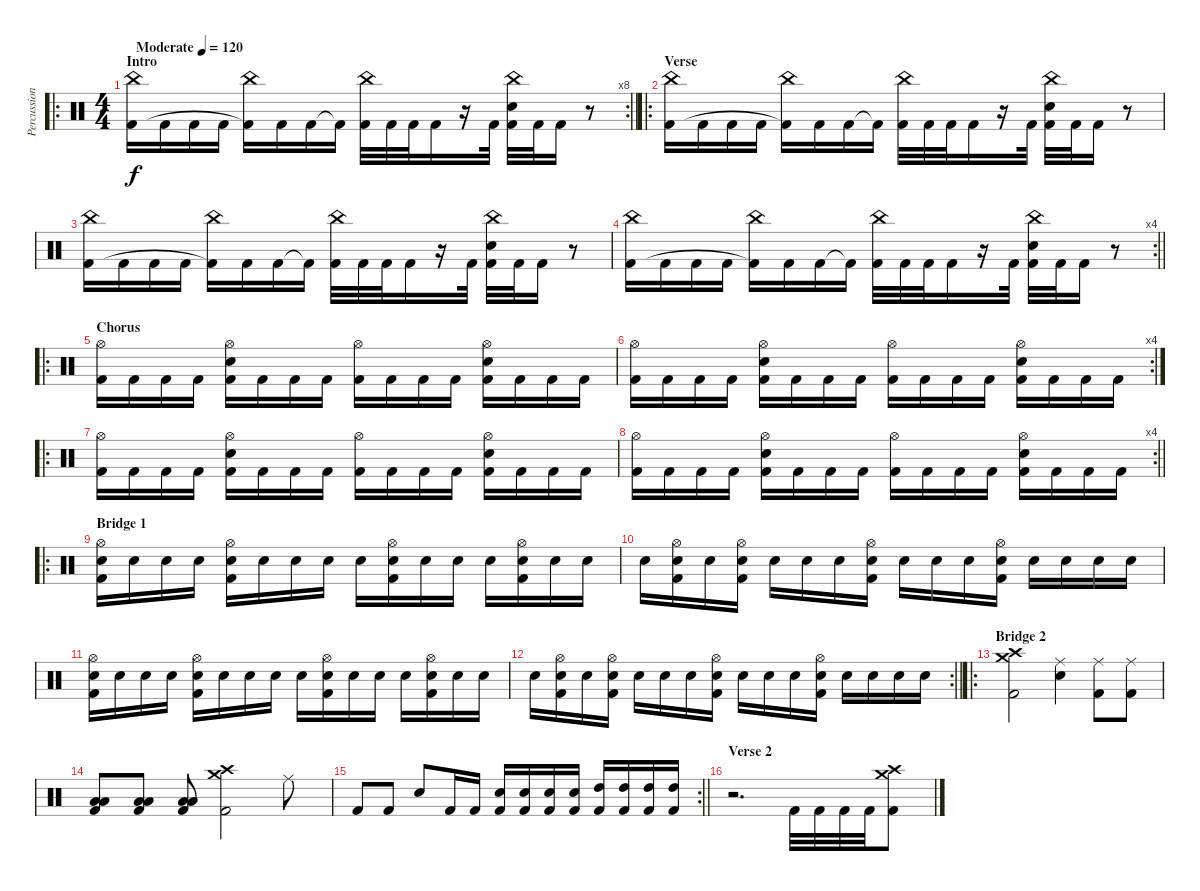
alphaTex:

\track ("Percussion" "Percussion") {instrument percussion}
\staff {score}
\articulation defaults
\ro
\rc 8
\ts (4 4)
\section ("" "Intro")
\tempo (120 "Moderate")
\clef neutral
\barLineRight lightlight
\ks c
("China (hit)" "Kick (hit) 2").16{dy f} "Kick (hit) 2".16 "Kick (hit) 2".16 "Kick (hit) 2".16 ("China (hit)" "Kick (hit) 2"{t}).16 "Kick (hit) 2".16 "Kick (hit) 2".16 "Kick (hit) 2"{t}.16 ("China (hit)" "Kick (hit) 2").32 "Kick (hit) 2".32 "Kick (hit) 2".32 "Kick (hit) 2".16 r.16 "Kick (hit) 2".32 ("China (hit)" "Electric Snare (hit)" "Kick (hit) 2").32 "Kick (hit) 2".32 "Kick (hit) 2".16 r.8 |
\ro
\section ("" "Verse")
("China (hit)" "Kick (hit) 2").16 "Kick (hit) 2".16 "Kick (hit) 2".16 "Kick (hit) 2".16 ("China (hit)" "Kick (hit) 2"{t}).16 "Kick (hit) 2".16 "Kick (hit) 2".16 "Kick (hit) 2"{t}.16 ("China (hit)" "Kick (hit) 2").32 "Kick (hit) 2".32 "Kick (hit) 2".32 "Kick (hit) 2".16 r.16 "Kick (hit) 2".32 ("China (hit)" "Electric Snare (hit)" "Kick (hit) 2").32 "Kick (hit) 2".32 "Kick (hit) 2".16 r.8 |
("China (hit)" "Kick (hit) 2").16 "Kick (hit) 2".16 "Kick (hit) 2".16 "Kick (hit) 2".16 ("China (hit)" "Kick (hit) 2"{t}).16 "Kick (hit) 2".16 "Kick (hit) 2".16 "Kick (hit) 2"{t}.16 ("China (hit)" "Kick (hit) 2").32 "Kick (hit) 2".32 "Kick (hit) 2".32 "Kick (hit) 2".16 r.16 "Kick (hit) 2".32 ("China (hit)" "Electric Snare (hit)" "Kick (hit) 2").32 "Kick (hit) 2".32 "Kick (hit) 2".16 r.8 |
\rc 4
\barLineRight lightlight
("China (hit)" "Kick (hit) 2").16 "Kick (hit) 2".16 "Kick (hit) 2".16 "Kick (hit) 2".16 ("China (hit)" "Kick (hit) 2"{t}).16 "Kick (hit) 2".16 "Kick (hit) 2".16 "Kick (hit) 2"{t}.16 ("China (hit)" "Kick (hit) 2").32 "Kick (hit) 2".32 "Kick (hit) 2".32 "Kick (hit) 2".16 r.16 "Kick (hit) 2".32 ("China (hit)" "Electric Snare (hit)" "Kick (hit) 2").32 "Kick (hit) 2".32 "Kick (hit) 2".16 r.8 |
\ro
\section ("" "Chorus")
("Hi-Hat (open)" "Kick (hit) 2").16 "Kick (hit) 2".16 "Kick (hit) 2".16 "Kick (hit) 2".16 ("Hi-Hat (open)" "Electric Snare (hit)" "Kick (hit) 2").16 "Kick (hit) 2".16 "Kick (hit) 2".16 "Kick (hit) 2".16 ("Hi-Hat (open)" "Kick (hit) 2").16 "Kick (hit) 2".16 "Kick (hit) 2".16 "Kick (hit) 2".16 ("Hi-Hat (open)" "Electric Snare (hit)" "Kick (hit) 2").16 "Kick (hit) 2".16 "Kick (hit) 2".16 "Kick (hit) 2".16 |
\rc 4
("Hi-Hat (open)" "Kick (hit) 2").16 "Kick (hit) 2".16 "Kick (hit) 2".16 "Kick (hit) 2".16 ("Hi-Hat (open)" "Electric Snare (hit)" "Kick (hit) 2").16 "Kick (hit) 2".16 "Kick (hit) 2".16 "Kick (hit) 2".16 ("Hi-Hat (open)" "Kick (hit) 2").16 "Kick (hit) 2".16 "Kick (hit) 2".16 "Kick (hit) 2".16 ("Hi-Hat (open)" "Electric Snare (hit)" "Kick (hit) 2").16 "Kick (hit) 2".16 "Kick (hit) 2".16 "Kick (hit) 2".16 |
\ro
("Hi-Hat (open)" "Kick (hit) 2").16 "Kick (hit) 2".16 "Kick (hit) 2".16 "Kick (hit) 2".16 ("Hi-Hat (open)" "Electric Snare (hit)" "Kick (hit) 2").16 "Kick (hit) 2".16 "Kick (hit) 2".16 "Kick (hit) 2".16 ("Hi-Hat (open)" "Kick (hit) 2").16 "Kick (hit) 2".16 "Kick (hit) 2".16 "Kick (hit) 2".16 ("Hi-Hat (open)" "Electric Snare (hit)" "Kick (hit) 2").16 "Kick (hit) 2".16 "Kick (hit) 2".16 "Kick (hit) 2".16 |
\rc 4
\barLineRight lightlight
("Hi-Hat (open)" "Kick (hit) 2").16 "Kick (hit) 2".16 "Kick (hit) 2".16 "Kick (hit) 2".16 ("Hi-Hat (open)" "Electric Snare (hit)" "Kick (hit) 2").16 "Kick (hit) 2".16 "Kick (hit) 2".16 "Kick (hit) 2".16 ("Hi-Hat (open)" "Kick (hit) 2").16 "Kick (hit) 2".16 "Kick (hit) 2".16 "Kick (hit) 2".16 ("Hi-Hat (open)" "Electric Snare (hit)" "Kick (hit) 2").16 "Kick (hit) 2".16 "Kick (hit) 2".16 "Kick (hit) 2".16 |
\ro
\section ("" "Bridge 1")
("Hi-Hat (open)" "Electric Snare (hit)" "Kick (hit) 2").16 "Electric Snare (hit)".16 "Electric Snare (hit)".16 "Electric Snare (hit)".16 ("Hi-Hat (open)" "Electric Snare (hit)" "Kick (hit) 2").16 "Electric Snare (hit)".16 "Electric Snare (hit)".16 "Electric Snare (hit)".16 "Electric Snare (hit)".16 ("Hi-Hat (open)" "Electric Snare (hit)" "Kick (hit) 2").16 "Electric Snare (hit)".16 "Electric Snare (hit)".16 "Electric Snare (hit)".16 ("Hi-Hat (open)" "Electric Snare (hit)" "Kick (hit) 2").16 "Electric Snare (hit)".16 "Electric Snare (hit)".16 |
"Electric Snare (hit)".16 ("Hi-Hat (open)" "Electric Snare (hit)" "Kick (hit) 2").16 "Electric Snare (hit)".16 ("Hi-Hat (open)" "Electric Snare (hit)" "Kick (hit) 2").16 "Electric Snare (hit)".16 "Electric Snare (hit)".16 "Electric Snare (hit)".16 ("Hi-Hat (open)" "Electric Snare (hit)" "Kick (hit) 2").16 "Electric Snare (hit)".16 "Electric Snare (hit)".16 "Electric Snare (hit)".16 ("Hi-Hat (open)" "Electric Snare (hit)" "Kick (hit) 2").16 "Electric Snare (hit)".16 "Electric Snare (hit)".16 "Electric Snare (hit)".16 "Electric Snare (hit)".16 |
("Hi-Hat (open)" "Electric Snare (hit)" "Kick (hit) 2").16 "Electric Snare (hit)".16 "Electric Snare (hit)".16 "Electric Snare (hit)".16 ("Hi-Hat (open)" "Electric Snare (hit)" "Kick (hit) 2").16 "Electric Snare (hit)".16 "Electric Snare (hit)".16 "Electric Snare (hit)".16 "Electric Snare (hit)".16 ("Hi-Hat (open)" "Electric Snare (hit)" "Kick (hit) 2").16 "Electric Snare (hit)".16 "Electric Snare (hit)".16 "Electric Snare (hit)".16 ("Hi-Hat (open)" "Electric Snare (hit)" "Kick (hit) 2").16 "Electric Snare (hit)".16 "Electric Snare (hit)".16 |
\rc 2
\barLineRight lightlight "Electric Snare (hit)".16
("Hi-Hat (open)" "Electric Snare (hit)" "Kick (hit) 2").16 "Electric Snare (hit)".16 ("Hi-Hat (open)" "Electric Snare (hit)" "Kick (hit) 2").16 "Electric Snare (hit)".16 "Electric Snare (hit)".16 "Electric Snare (hit)".16 ("Hi-Hat (open)" "Electric Snare (hit)" "Kick (hit) 2").16 "Electric Snare (hit)".16 "Electric Snare (hit)".16 "Electric Snare (hit)".16 ("Hi-Hat (open)" "Electric Snare (hit)" "Kick (hit) 2").16 "Electric Snare (hit)".16 "Electric Snare (hit)".16 "Electric Snare (hit)".16 "Electric Snare (hit)".16 |
\ro
\section ("" "Bridge 2")
("Crash high (hit)" "Crash medium (hit)" "Kick (hit) 2").2 ("Ride (middle)" "Electric Snare (hit)").4 ("Ride (middle)" "Kick (hit) 2").8 ("Ride (middle)" "Kick (hit) 2").8 |
("Low Floor Tom (hit)" "Low Tom (hit)" "Kick (hit) 2").8 ("Low Floor Tom (hit)" "Low Tom (hit)" "Kick (hit) 2").8 ("Low Floor Tom (hit)" "Low Tom (hit)" "Kick (hit) 2").8 ("Crash high (hit)" "Crash medium (hit)" "Kick (hit) 2").2 "Ride (middle)".8 |
\rc 2
\barLineRight lightlight "Kick (hit) 2".8 "Kick (hit) 2".8 "Electric Snare (hit)".8 "Kick (hit) 2".16 "Kick (hit) 2".16
("Electric Snare (hit)" "Kick (hit) 2").16 ("Electric Snare (hit)" "Kick (hit) 2").16 ("Electric Snare (hit)" "Kick (hit) 2").16 ("Electric Snare (hit)" "Kick (hit) 2").16 ("High Tom (hit)" "Kick (hit) 2").16 ("High Tom (hit)" "Kick (hit) 2").16 ("High Tom (hit)" "Kick (hit) 2").16 ("High Tom (hit)" "Kick (hit) 2").16 |
\section ("" "Verse 2")
r.2{d} "Kick (hit) 2".32 "Kick (hit) 2".32 "Kick (hit) 2".32 "Kick (hit) 2".32 ("Crash high (hit)" "Crash medium (hit)" "Kick (hit) 2").8
